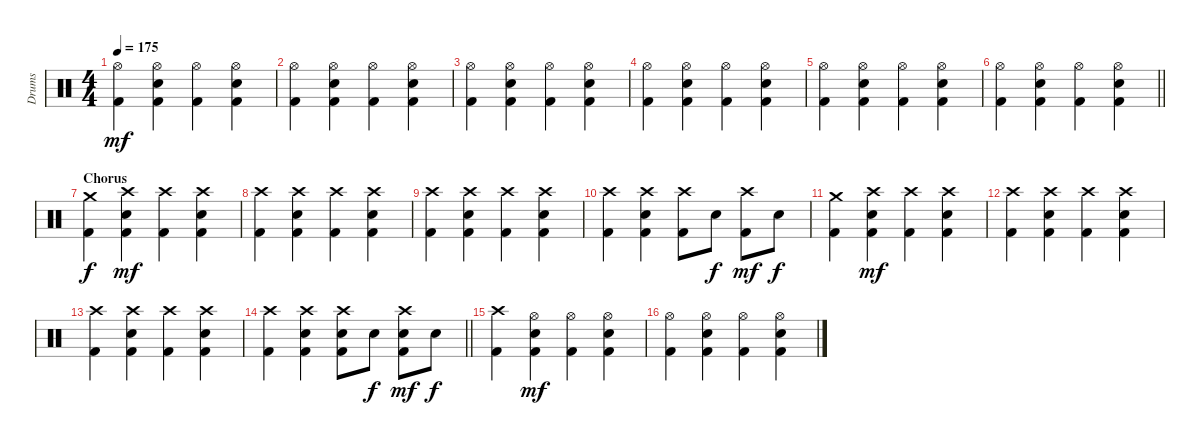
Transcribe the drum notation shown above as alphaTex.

\track ("Drums" "Drums") {instrument percussion}
\staff {score}
\articulation defaults
\ts (4 4)
\tempo 175
\clef neutral
\ks c
("Hi-Hat (open)" "Kick (hit) 2").4{dy mf} ("Hi-Hat (open)" "Electric Snare (hit)" "Kick (hit) 2").4 ("Hi-Hat (open)" "Kick (hit) 2").4 ("Hi-Hat (open)" "Electric Snare (hit)" "Kick (hit) 2").4 |
("Hi-Hat (open)" "Kick (hit) 2").4 ("Hi-Hat (open)" "Electric Snare (hit)" "Kick (hit) 2").4 ("Hi-Hat (open)" "Kick (hit) 2").4 ("Hi-Hat (open)" "Electric Snare (hit)" "Kick (hit) 2").4 |
("Hi-Hat (open)" "Kick (hit) 2").4 ("Hi-Hat (open)" "Electric Snare (hit)" "Kick (hit) 2").4 ("Hi-Hat (open)" "Kick (hit) 2").4 ("Hi-Hat (open)" "Electric Snare (hit)" "Kick (hit) 2").4 |
("Hi-Hat (open)" "Kick (hit) 2").4 ("Hi-Hat (open)" "Electric Snare (hit)" "Kick (hit) 2").4 ("Hi-Hat (open)" "Kick (hit) 2").4 ("Hi-Hat (open)" "Electric Snare (hit)" "Kick (hit) 2").4 |
("Hi-Hat (open)" "Kick (hit) 2").4 ("Hi-Hat (open)" "Electric Snare (hit)" "Kick (hit) 2").4 ("Hi-Hat (open)" "Kick (hit) 2").4 ("Hi-Hat (open)" "Electric Snare (hit)" "Kick (hit) 2").4 |
\barLineRight lightlight
("Hi-Hat (open)" "Kick (hit) 2").4 ("Hi-Hat (open)" "Electric Snare (hit)" "Kick (hit) 2").4 ("Hi-Hat (open)" "Kick (hit) 2").4 ("Hi-Hat (open)" "Electric Snare (hit)" "Kick (hit) 2").4 |
\section ("" "Chorus")
("Crash medium (hit)" "Kick (hit) 2").4{dy f} ("Crash high (hit)" "Electric Snare (hit)" "Kick (hit) 2").4{dy mf} ("Crash high (hit)" "Kick (hit) 2").4 ("Crash high (hit)" "Electric Snare (hit)" "Kick (hit) 2").4 |
("Crash high (hit)" "Kick (hit) 2").4 ("Crash high (hit)" "Electric Snare (hit)" "Kick (hit) 2").4 ("Crash high (hit)" "Kick (hit) 2").4 ("Crash high (hit)" "Electric Snare (hit)" "Kick (hit) 2").4 |
("Crash high (hit)" "Kick (hit) 2").4 ("Crash high (hit)" "Electric Snare (hit)" "Kick (hit) 2").4 ("Crash high (hit)" "Kick (hit) 2").4 ("Crash high (hit)" "Electric Snare (hit)" "Kick (hit) 2").4 |
("Crash high (hit)" "Kick (hit) 2").4 ("Crash high (hit)" "Electric Snare (hit)" "Kick (hit) 2").4 ("Crash high (hit)" "Kick (hit) 2").8 "Electric Snare (hit)".8{dy f} ("Crash high (hit)" "Kick (hit) 2").8{dy mf} "Electric Snare (hit)".8{dy f} |
("Crash medium (hit)" "Kick (hit) 2").4 ("Crash high (hit)" "Electric Snare (hit)" "Kick (hit) 2").4{dy mf} ("Crash high (hit)" "Kick (hit) 2").4 ("Crash high (hit)" "Electric Snare (hit)" "Kick (hit) 2").4 |
("Crash high (hit)" "Kick (hit) 2").4 ("Crash high (hit)" "Electric Snare (hit)" "Kick (hit) 2").4 ("Crash high (hit)" "Kick (hit) 2").4 ("Crash high (hit)" "Electric Snare (hit)" "Kick (hit) 2").4 |
("Crash high (hit)" "Kick (hit) 2").4 ("Crash high (hit)" "Electric Snare (hit)" "Kick (hit) 2").4 ("Crash high (hit)" "Kick (hit) 2").4 ("Crash high (hit)" "Electric Snare (hit)" "Kick (hit) 2").4 |
\barLineRight lightlight
("Crash high (hit)" "Kick (hit) 2").4 ("Crash high (hit)" "Electric Snare (hit)" "Kick (hit) 2").4 ("Crash high (hit)" "Electric Snare (hit)" "Kick (hit) 2").8 "Electric Snare (hit)".8{dy f} ("Crash high (hit)" "Electric Snare (hit)" "Kick (hit) 2").8{dy mf} "Electric Snare (hit)".8{dy f} |
("Crash high (hit)" "Kick (hit) 2").4 ("Hi-Hat (open)" "Electric Snare (hit)" "Kick (hit) 2").4{dy mf} ("Hi-Hat (open)" "Kick (hit) 2").4 ("Hi-Hat (open)" "Electric Snare (hit)" "Kick (hit) 2").4 |
("Hi-Hat (open)" "Kick (hit) 2").4 ("Hi-Hat (open)" "Electric Snare (hit)" "Kick (hit) 2").4 ("Hi-Hat (open)" "Kick (hit) 2").4 ("Hi-Hat (open)" "Electric Snare (hit)" "Kick (hit) 2").4
